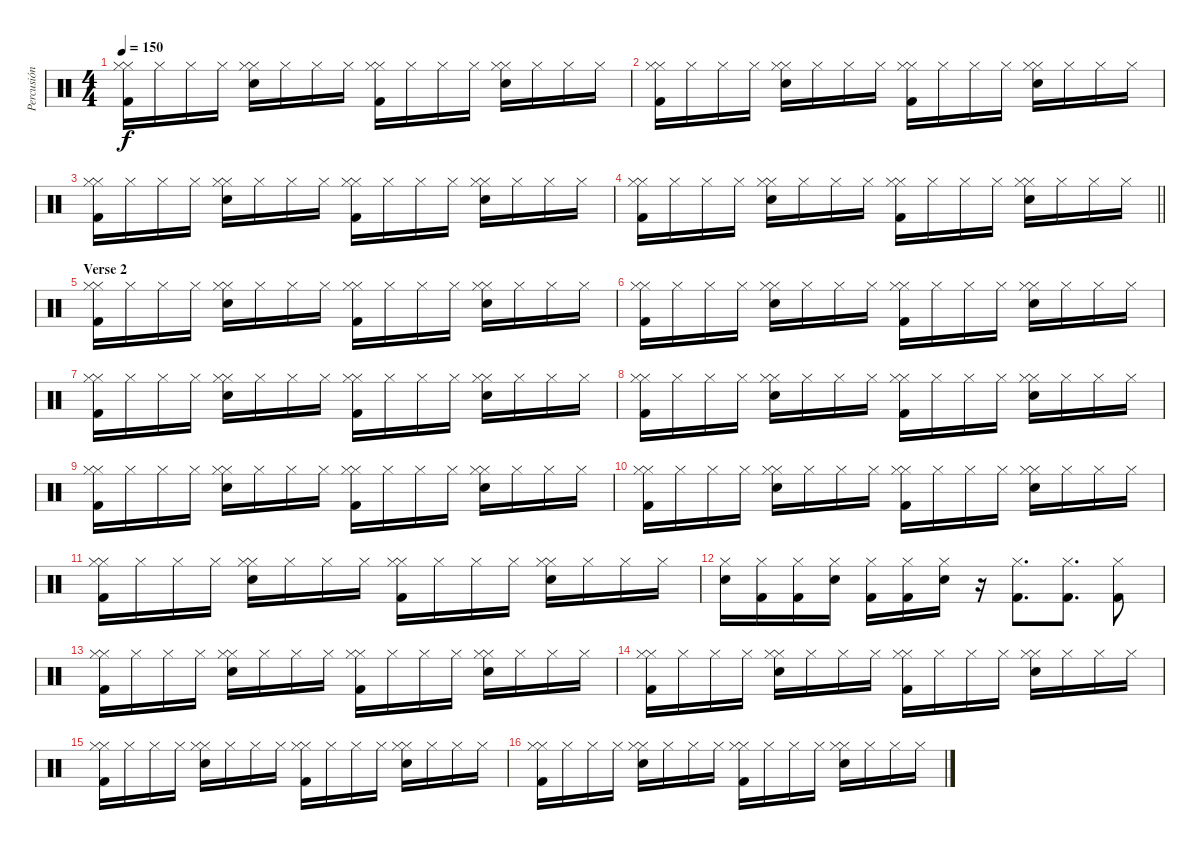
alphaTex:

\track ("Percusión" "Percusión") {instrument percussion}
\staff {score}
\articulation defaults
\ts (4 4)
\tempo 150
\clef neutral
\ks c
("Kick (hit) 2" "Hi-Hat (closed)" "Hi-Hat (closed)").16{dy f} "Hi-Hat (closed)".16 "Hi-Hat (closed)".16 "Hi-Hat (closed)".16 ("Hi-Hat (closed)" "Electric Snare (hit)" "Hi-Hat (closed)").16 "Hi-Hat (closed)".16 "Hi-Hat (closed)".16 "Hi-Hat (closed)".16 ("Kick (hit) 2" "Hi-Hat (closed)" "Hi-Hat (closed)").16 "Hi-Hat (closed)".16 "Hi-Hat (closed)".16 "Hi-Hat (closed)".16 ("Hi-Hat (closed)" "Electric Snare (hit)" "Hi-Hat (closed)").16 "Hi-Hat (closed)".16 "Hi-Hat (closed)".16 "Hi-Hat (closed)".16 |
("Kick (hit) 2" "Hi-Hat (closed)" "Hi-Hat (closed)").16 "Hi-Hat (closed)".16 "Hi-Hat (closed)".16 "Hi-Hat (closed)".16 ("Hi-Hat (closed)" "Electric Snare (hit)" "Hi-Hat (closed)").16 "Hi-Hat (closed)".16 "Hi-Hat (closed)".16 "Hi-Hat (closed)".16 ("Kick (hit) 2" "Hi-Hat (closed)" "Hi-Hat (closed)").16 "Hi-Hat (closed)".16 "Hi-Hat (closed)".16 "Hi-Hat (closed)".16 ("Hi-Hat (closed)" "Electric Snare (hit)" "Hi-Hat (closed)").16 "Hi-Hat (closed)".16 "Hi-Hat (closed)".16 "Hi-Hat (closed)".16 |
("Kick (hit) 2" "Hi-Hat (closed)" "Hi-Hat (closed)").16 "Hi-Hat (closed)".16 "Hi-Hat (closed)".16 "Hi-Hat (closed)".16 ("Hi-Hat (closed)" "Electric Snare (hit)" "Hi-Hat (closed)").16 "Hi-Hat (closed)".16 "Hi-Hat (closed)".16 "Hi-Hat (closed)".16 ("Kick (hit) 2" "Hi-Hat (closed)" "Hi-Hat (closed)").16 "Hi-Hat (closed)".16 "Hi-Hat (closed)".16 "Hi-Hat (closed)".16 ("Hi-Hat (closed)" "Electric Snare (hit)" "Hi-Hat (closed)").16 "Hi-Hat (closed)".16 "Hi-Hat (closed)".16 "Hi-Hat (closed)".16 |
\barLineRight lightlight
("Kick (hit) 2" "Hi-Hat (closed)" "Hi-Hat (closed)").16 "Hi-Hat (closed)".16 "Hi-Hat (closed)".16 "Hi-Hat (closed)".16 ("Hi-Hat (closed)" "Electric Snare (hit)" "Hi-Hat (closed)").16 "Hi-Hat (closed)".16 "Hi-Hat (closed)".16 "Hi-Hat (closed)".16 ("Kick (hit) 2" "Hi-Hat (closed)" "Hi-Hat (closed)").16 "Hi-Hat (closed)".16 "Hi-Hat (closed)".16 "Hi-Hat (closed)".16 ("Hi-Hat (closed)" "Electric Snare (hit)" "Hi-Hat (closed)").16 "Hi-Hat (closed)".16 "Hi-Hat (closed)".16 "Hi-Hat (closed)".16 |
\section ("" "Verse 2")
("Kick (hit) 2" "Hi-Hat (closed)" "Hi-Hat (closed)").16 "Hi-Hat (closed)".16 "Hi-Hat (closed)".16 "Hi-Hat (closed)".16 ("Hi-Hat (closed)" "Electric Snare (hit)" "Hi-Hat (closed)").16 "Hi-Hat (closed)".16 "Hi-Hat (closed)".16 "Hi-Hat (closed)".16 ("Kick (hit) 2" "Hi-Hat (closed)" "Hi-Hat (closed)").16 "Hi-Hat (closed)".16 "Hi-Hat (closed)".16 "Hi-Hat (closed)".16 ("Hi-Hat (closed)" "Electric Snare (hit)" "Hi-Hat (closed)").16 "Hi-Hat (closed)".16 "Hi-Hat (closed)".16 "Hi-Hat (closed)".16 |
("Kick (hit) 2" "Hi-Hat (closed)" "Hi-Hat (closed)").16 "Hi-Hat (closed)".16 "Hi-Hat (closed)".16 "Hi-Hat (closed)".16 ("Hi-Hat (closed)" "Electric Snare (hit)" "Hi-Hat (closed)").16 "Hi-Hat (closed)".16 "Hi-Hat (closed)".16 "Hi-Hat (closed)".16 ("Kick (hit) 2" "Hi-Hat (closed)" "Hi-Hat (closed)").16 "Hi-Hat (closed)".16 "Hi-Hat (closed)".16 "Hi-Hat (closed)".16 ("Hi-Hat (closed)" "Electric Snare (hit)" "Hi-Hat (closed)").16 "Hi-Hat (closed)".16 "Hi-Hat (closed)".16 "Hi-Hat (closed)".16 |
("Kick (hit) 2" "Hi-Hat (closed)" "Hi-Hat (closed)").16 "Hi-Hat (closed)".16 "Hi-Hat (closed)".16 "Hi-Hat (closed)".16 ("Hi-Hat (closed)" "Electric Snare (hit)" "Hi-Hat (closed)").16 "Hi-Hat (closed)".16 "Hi-Hat (closed)".16 "Hi-Hat (closed)".16 ("Kick (hit) 2" "Hi-Hat (closed)" "Hi-Hat (closed)").16 "Hi-Hat (closed)".16 "Hi-Hat (closed)".16 "Hi-Hat (closed)".16 ("Hi-Hat (closed)" "Electric Snare (hit)" "Hi-Hat (closed)").16 "Hi-Hat (closed)".16 "Hi-Hat (closed)".16 "Hi-Hat (closed)".16 |
("Kick (hit) 2" "Hi-Hat (closed)" "Hi-Hat (closed)").16 "Hi-Hat (closed)".16 "Hi-Hat (closed)".16 "Hi-Hat (closed)".16 ("Hi-Hat (closed)" "Electric Snare (hit)" "Hi-Hat (closed)").16 "Hi-Hat (closed)".16 "Hi-Hat (closed)".16 "Hi-Hat (closed)".16 ("Kick (hit) 2" "Hi-Hat (closed)" "Hi-Hat (closed)").16 "Hi-Hat (closed)".16 "Hi-Hat (closed)".16 "Hi-Hat (closed)".16 ("Hi-Hat (closed)" "Electric Snare (hit)" "Hi-Hat (closed)").16 "Hi-Hat (closed)".16 "Hi-Hat (closed)".16 "Hi-Hat (closed)".16 |
("Kick (hit) 2" "Hi-Hat (closed)" "Hi-Hat (closed)").16 "Hi-Hat (closed)".16 "Hi-Hat (closed)".16 "Hi-Hat (closed)".16 ("Hi-Hat (closed)" "Electric Snare (hit)" "Hi-Hat (closed)").16 "Hi-Hat (closed)".16 "Hi-Hat (closed)".16 "Hi-Hat (closed)".16 ("Kick (hit) 2" "Hi-Hat (closed)" "Hi-Hat (closed)").16 "Hi-Hat (closed)".16 "Hi-Hat (closed)".16 "Hi-Hat (closed)".16 ("Hi-Hat (closed)" "Electric Snare (hit)" "Hi-Hat (closed)").16 "Hi-Hat (closed)".16 "Hi-Hat (closed)".16 "Hi-Hat (closed)".16 |
("Kick (hit) 2" "Hi-Hat (closed)" "Hi-Hat (closed)").16 "Hi-Hat (closed)".16 "Hi-Hat (closed)".16 "Hi-Hat (closed)".16 ("Hi-Hat (closed)" "Electric Snare (hit)" "Hi-Hat (closed)").16 "Hi-Hat (closed)".16 "Hi-Hat (closed)".16 "Hi-Hat (closed)".16 ("Kick (hit) 2" "Hi-Hat (closed)" "Hi-Hat (closed)").16 "Hi-Hat (closed)".16 "Hi-Hat (closed)".16 "Hi-Hat (closed)".16 ("Hi-Hat (closed)" "Electric Snare (hit)" "Hi-Hat (closed)").16 "Hi-Hat (closed)".16 "Hi-Hat (closed)".16 "Hi-Hat (closed)".16 |
("Kick (hit) 2" "Hi-Hat (closed)" "Hi-Hat (closed)").16 "Hi-Hat (closed)".16 "Hi-Hat (closed)".16 "Hi-Hat (closed)".16 ("Hi-Hat (closed)" "Electric Snare (hit)" "Hi-Hat (closed)").16 "Hi-Hat (closed)".16 "Hi-Hat (closed)".16 "Hi-Hat (closed)".16 ("Kick (hit) 2" "Hi-Hat (closed)" "Hi-Hat (closed)").16 "Hi-Hat (closed)".16 "Hi-Hat (closed)".16 "Hi-Hat (closed)".16 ("Hi-Hat (closed)" "Electric Snare (hit)" "Hi-Hat (closed)").16 "Hi-Hat (closed)".16 "Hi-Hat (closed)".16 "Hi-Hat (closed)".16 |
("Electric Snare (hit)" "Hi-Hat (closed)").16 ("Kick (hit) 2" "Hi-Hat (closed)").16 ("Kick (hit) 2" "Hi-Hat (closed)").16 ("Electric Snare (hit)" "Hi-Hat (closed)").16 ("Kick (hit) 2" "Hi-Hat (closed)").16 ("Kick (hit) 2" "Hi-Hat (closed)").16 ("Electric Snare (hit)" "Hi-Hat (closed)").16 r.16 ("Hi-Hat (closed)" "Kick (hit) 2").8{d} ("Hi-Hat (closed)" "Kick (hit) 2").8{d} ("Hi-Hat (closed)" "Kick (hit) 2").8 |
("Kick (hit) 2" "Hi-Hat (closed)" "Hi-Hat (closed)").16 "Hi-Hat (closed)".16 "Hi-Hat (closed)".16 "Hi-Hat (closed)".16 ("Hi-Hat (closed)" "Electric Snare (hit)" "Hi-Hat (closed)").16 "Hi-Hat (closed)".16 "Hi-Hat (closed)".16 "Hi-Hat (closed)".16 ("Kick (hit) 2" "Hi-Hat (closed)" "Hi-Hat (closed)").16 "Hi-Hat (closed)".16 "Hi-Hat (closed)".16 "Hi-Hat (closed)".16 ("Hi-Hat (closed)" "Electric Snare (hit)" "Hi-Hat (closed)").16 "Hi-Hat (closed)".16 "Hi-Hat (closed)".16 "Hi-Hat (closed)".16 |
("Kick (hit) 2" "Hi-Hat (closed)" "Hi-Hat (closed)").16 "Hi-Hat (closed)".16 "Hi-Hat (closed)".16 "Hi-Hat (closed)".16 ("Hi-Hat (closed)" "Electric Snare (hit)" "Hi-Hat (closed)").16 "Hi-Hat (closed)".16 "Hi-Hat (closed)".16 "Hi-Hat (closed)".16 ("Kick (hit) 2" "Hi-Hat (closed)" "Hi-Hat (closed)").16 "Hi-Hat (closed)".16 "Hi-Hat (closed)".16 "Hi-Hat (closed)".16 ("Hi-Hat (closed)" "Electric Snare (hit)" "Hi-Hat (closed)").16 "Hi-Hat (closed)".16 "Hi-Hat (closed)".16 "Hi-Hat (closed)".16 |
("Kick (hit) 2" "Hi-Hat (closed)" "Hi-Hat (closed)").16 "Hi-Hat (closed)".16 "Hi-Hat (closed)".16 "Hi-Hat (closed)".16 ("Hi-Hat (closed)" "Electric Snare (hit)" "Hi-Hat (closed)").16 "Hi-Hat (closed)".16 "Hi-Hat (closed)".16 "Hi-Hat (closed)".16 ("Kick (hit) 2" "Hi-Hat (closed)" "Hi-Hat (closed)").16 "Hi-Hat (closed)".16 "Hi-Hat (closed)".16 "Hi-Hat (closed)".16 ("Hi-Hat (closed)" "Electric Snare (hit)" "Hi-Hat (closed)").16 "Hi-Hat (closed)".16 "Hi-Hat (closed)".16 "Hi-Hat (closed)".16 |
("Kick (hit) 2" "Hi-Hat (closed)" "Hi-Hat (closed)").16 "Hi-Hat (closed)".16 "Hi-Hat (closed)".16 "Hi-Hat (closed)".16 ("Hi-Hat (closed)" "Electric Snare (hit)" "Hi-Hat (closed)").16 "Hi-Hat (closed)".16 "Hi-Hat (closed)".16 "Hi-Hat (closed)".16 ("Kick (hit) 2" "Hi-Hat (closed)" "Hi-Hat (closed)").16 "Hi-Hat (closed)".16 "Hi-Hat (closed)".16 "Hi-Hat (closed)".16 ("Hi-Hat (closed)" "Electric Snare (hit)" "Hi-Hat (closed)").16 "Hi-Hat (closed)".16 "Hi-Hat (closed)".16 "Hi-Hat (closed)".16
